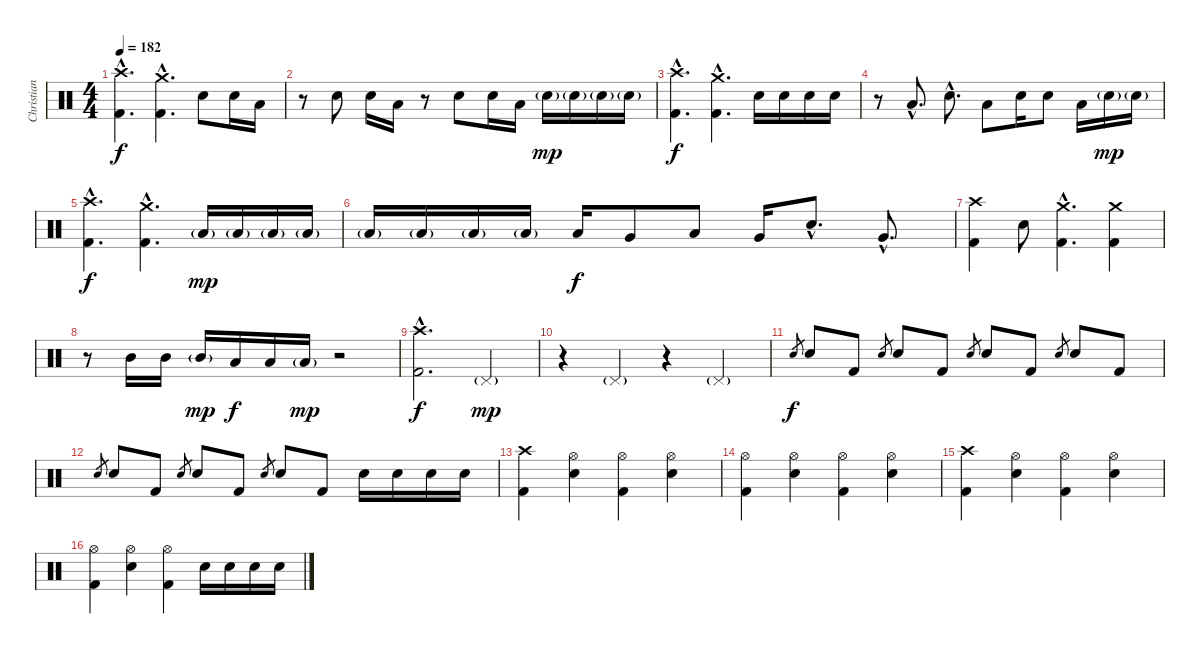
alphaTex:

\track ("Christian Meyer" "Christian ") {instrument percussion}
\staff {score}
\articulation defaults
\ts (4 4)
\tempo 182
\clef neutral
\ks c
("Crash high (hit)"{hac} "Kick (hit) 2"{hac}).4{d dy f volume 14} ("Crash medium (hit)"{hac} "Kick (hit) 2"{hac}).4{d} "Electric Snare (hit)".8 "Electric Snare (hit)".16 "Low Tom (hit)".16 |
r.8 "Electric Snare (hit)".8 "Electric Snare (hit)".16 "Low Tom (hit)".16 r.8 "Electric Snare (hit)".8 "Electric Snare (hit)".16 "Low Tom (hit)".16 "Electric Snare (hit)"{g}.16{dy mp} "Electric Snare (hit)"{g}.16 "Electric Snare (hit)"{g}.16 "Electric Snare (hit)"{g}.16 |
("Crash high (hit)"{hac} "Kick (hit) 2"{hac}).4{d dy f} ("Crash medium (hit)"{hac} "Kick (hit) 2"{hac}).4{d} "Electric Snare (hit)".16 "Electric Snare (hit)".16 "Electric Snare (hit)".16 "Electric Snare (hit)".16 |
r.8 "Low Tom (hit)"{hac}.8{d} "Electric Snare (hit)"{hac}.8{d} "Low Tom (hit)".8 "Electric Snare (hit)".16 "Electric Snare (hit)".8 "Low Tom (hit)".16 "Electric Snare (hit)"{g}.16{dy mp} "Electric Snare (hit)"{g}.16 |
("Crash high (hit)"{hac} "Kick (hit) 2"{hac}).4{d dy f} ("Crash medium (hit)"{hac} "Kick (hit) 2"{hac}).4{d} "Low Tom (hit)"{g}.16{dy mp} "Low Tom (hit)"{g}.16 "Low Floor Tom (hit)"{g}.16 "Low Floor Tom (hit)"{g}.16 |
"Low Floor Tom (hit)"{g}.16 "Low Floor Tom (hit)"{g}.16 "Low Floor Tom (hit)"{g}.16 "Low Tom (hit)"{g}.16 "Low Tom (hit)".16{dy f} "Very Low Tom (hit)".8 "Low Floor Tom (hit)".8 "Very Low Tom (hit)".16 "Electric Snare (hit)"{hac}.8{d} "Very Low Tom (hit)"{hac}.8{d} |
("Crash high (hit)" "Kick (hit) 2").4 "Electric Snare (hit)".8 ("Crash medium (hit)"{hac} "Kick (hit) 2"{hac}).4{d} ("Crash medium (hit)" "Kick (hit) 2").4 |
r.8 "Mid Tom (hit)".16 "Mid Tom (hit)".16 "Mid Tom (hit)"{g}.16{dy mp} "Low Tom (hit)".16{dy f} "Low Tom (hit)".16 "Low Tom (hit)"{g}.16{dy mp} r.2 |
("Crash high (hit)"{hac} "Kick (hit) 2"{hac}).2{d dy f} "Pedal Hi-Hat (hit)"{g}.4{dy mp} |
r.4 "Pedal Hi-Hat (hit)"{g}.4 r.4 "Pedal Hi-Hat (hit)"{g}.4 |
"Electric Snare (hit)".8{gr dy f} "Electric Snare (hit)".8{volume 11} "Kick (hit) 2".8 "Electric Snare (hit)".8{gr} "Electric Snare (hit)".8{volume 12} "Kick (hit) 2".8 "Electric Snare (hit)".8{gr} "Electric Snare (hit)".8{volume 13} "Kick (hit) 2".8 "Electric Snare (hit)".8{gr} "Electric Snare (hit)".8{volume 14} "Kick (hit) 2".8 |
"Electric Snare (hit)".8{gr} "Electric Snare (hit)".8 "Kick (hit) 2".8 "Electric Snare (hit)".8{gr} "Electric Snare (hit)".8 "Kick (hit) 2".8 "Electric Snare (hit)".8{gr} "Electric Snare (hit)".8 "Kick (hit) 2".8 "Electric Snare (hit)".16 "Electric Snare (hit)".16 "Electric Snare (hit)".16 "Electric Snare (hit)".16 |
("Crash high (hit)" "Kick (hit) 2").4 ("Hi-Hat (open)" "Electric Snare (hit)").4 ("Hi-Hat (open)" "Kick (hit) 2").4 ("Hi-Hat (open)" "Electric Snare (hit)").4 |
("Hi-Hat (open)" "Kick (hit) 2").4 ("Hi-Hat (open)" "Electric Snare (hit)").4 ("Hi-Hat (open)" "Kick (hit) 2").4 ("Hi-Hat (open)" "Electric Snare (hit)").4 |
("Crash high (hit)" "Kick (hit) 2").4 ("Hi-Hat (open)" "Electric Snare (hit)").4 ("Hi-Hat (open)" "Kick (hit) 2").4 ("Hi-Hat (open)" "Electric Snare (hit)").4 |
("Hi-Hat (open)" "Kick (hit) 2").4 ("Hi-Hat (open)" "Electric Snare (hit)").4 ("Hi-Hat (open)" "Kick (hit) 2").4 "Electric Snare (hit)".16 "Electric Snare (hit)".16 "Electric Snare (hit)".16 "Electric Snare (hit)".16
